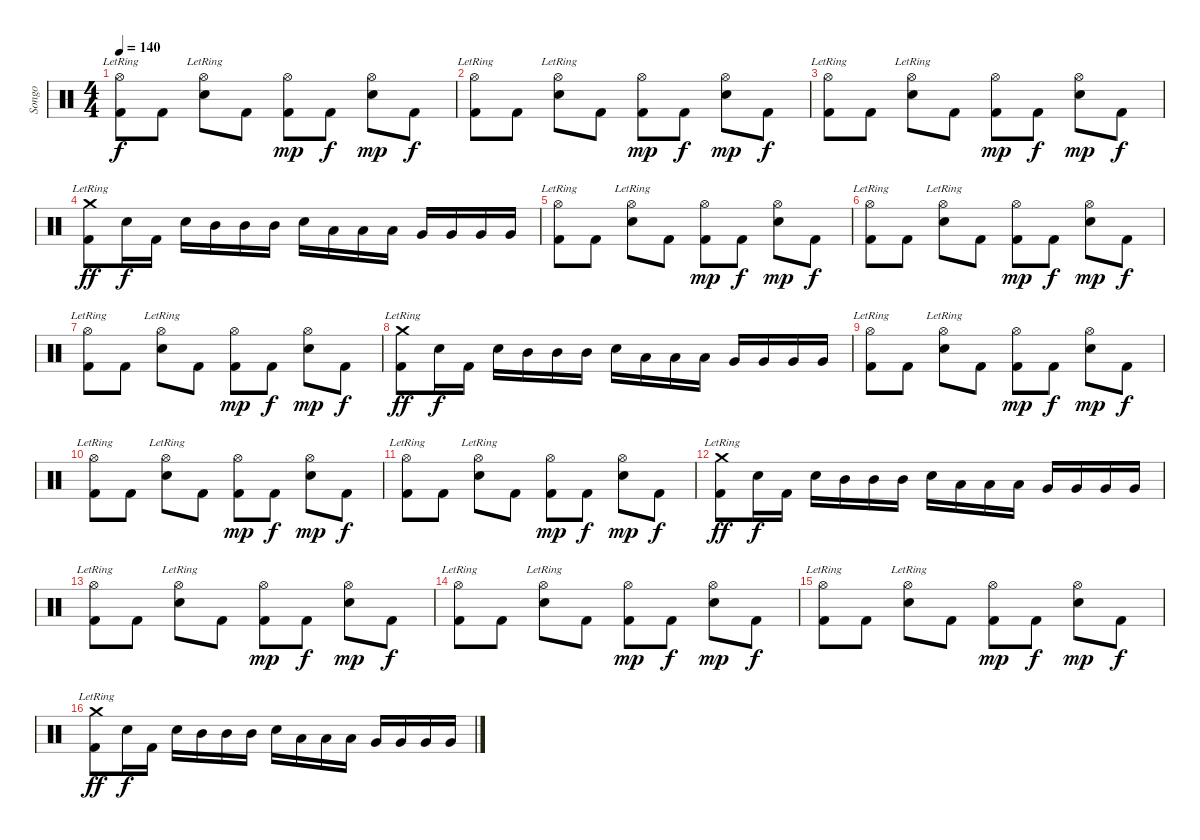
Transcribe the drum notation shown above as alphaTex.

\track ("Songo" "Songo") {instrument percussion}
\staff {score}
\articulation defaults
\ts (4 4)
\tempo 140
\clef neutral
\ks c
("Hi-Hat (open)"{lr} "Kick (hit) 2").8{dy f} "Kick (hit) 2".8 ("Hi-Hat (open)"{lr} "Electric Snare (hit)").8 "Kick (hit) 2".8 ("Hi-Hat (open)" "Kick (hit) 2").8{dy mp} "Kick (hit) 2".8{dy f} ("Hi-Hat (open)" "Electric Snare (hit)").8{dy mp} "Kick (hit) 2".8{dy f} |
("Hi-Hat (open)"{lr} "Kick (hit) 2").8 "Kick (hit) 2".8 ("Hi-Hat (open)"{lr} "Electric Snare (hit)").8 "Kick (hit) 2".8 ("Hi-Hat (open)" "Kick (hit) 2").8{dy mp} "Kick (hit) 2".8{dy f} ("Hi-Hat (open)" "Electric Snare (hit)").8{dy mp} "Kick (hit) 2".8{dy f} |
("Hi-Hat (open)"{lr} "Kick (hit) 2").8 "Kick (hit) 2".8 ("Hi-Hat (open)"{lr} "Electric Snare (hit)").8 "Kick (hit) 2".8 ("Hi-Hat (open)" "Kick (hit) 2").8{dy mp} "Kick (hit) 2".8{dy f} ("Hi-Hat (open)" "Electric Snare (hit)").8{dy mp} "Kick (hit) 2".8{dy f} |
("Crash medium (hit)"{lr} "Kick (hit) 2").8{dy ff} "Electric Snare (hit)".16{dy f} "Kick (hit) 2".16 "Electric Snare (hit)".16 "Mid Tom (hit)".16 "Mid Tom (hit)".16 "Mid Tom (hit)".16 "Electric Snare (hit)".16 "Low Tom (hit)".16 "Low Tom (hit)".16 "Low Tom (hit)".16 "Very Low Tom (hit)".16 "Very Low Tom (hit)".16 "Very Low Tom (hit)".16 "Very Low Tom (hit)".16 |
("Hi-Hat (open)"{lr} "Kick (hit) 2").8 "Kick (hit) 2".8 ("Hi-Hat (open)"{lr} "Electric Snare (hit)").8 "Kick (hit) 2".8 ("Hi-Hat (open)" "Kick (hit) 2").8{dy mp} "Kick (hit) 2".8{dy f} ("Hi-Hat (open)" "Electric Snare (hit)").8{dy mp} "Kick (hit) 2".8{dy f} |
("Hi-Hat (open)"{lr} "Kick (hit) 2").8 "Kick (hit) 2".8 ("Hi-Hat (open)"{lr} "Electric Snare (hit)").8 "Kick (hit) 2".8 ("Hi-Hat (open)" "Kick (hit) 2").8{dy mp} "Kick (hit) 2".8{dy f} ("Hi-Hat (open)" "Electric Snare (hit)").8{dy mp} "Kick (hit) 2".8{dy f} |
("Hi-Hat (open)"{lr} "Kick (hit) 2").8 "Kick (hit) 2".8 ("Hi-Hat (open)"{lr} "Electric Snare (hit)").8 "Kick (hit) 2".8 ("Hi-Hat (open)" "Kick (hit) 2").8{dy mp} "Kick (hit) 2".8{dy f} ("Hi-Hat (open)" "Electric Snare (hit)").8{dy mp} "Kick (hit) 2".8{dy f} |
("Crash medium (hit)"{lr} "Kick (hit) 2").8{dy ff} "Electric Snare (hit)".16{dy f} "Kick (hit) 2".16 "Electric Snare (hit)".16 "Mid Tom (hit)".16 "Mid Tom (hit)".16 "Mid Tom (hit)".16 "Electric Snare (hit)".16 "Low Tom (hit)".16 "Low Tom (hit)".16 "Low Tom (hit)".16 "Very Low Tom (hit)".16 "Very Low Tom (hit)".16 "Very Low Tom (hit)".16 "Very Low Tom (hit)".16 |
("Hi-Hat (open)"{lr} "Kick (hit) 2").8 "Kick (hit) 2".8 ("Hi-Hat (open)"{lr} "Electric Snare (hit)").8 "Kick (hit) 2".8 ("Hi-Hat (open)" "Kick (hit) 2").8{dy mp} "Kick (hit) 2".8{dy f} ("Hi-Hat (open)" "Electric Snare (hit)").8{dy mp} "Kick (hit) 2".8{dy f} |
("Hi-Hat (open)"{lr} "Kick (hit) 2").8 "Kick (hit) 2".8 ("Hi-Hat (open)"{lr} "Electric Snare (hit)").8 "Kick (hit) 2".8 ("Hi-Hat (open)" "Kick (hit) 2").8{dy mp} "Kick (hit) 2".8{dy f} ("Hi-Hat (open)" "Electric Snare (hit)").8{dy mp} "Kick (hit) 2".8{dy f} |
("Hi-Hat (open)"{lr} "Kick (hit) 2").8 "Kick (hit) 2".8 ("Hi-Hat (open)"{lr} "Electric Snare (hit)").8 "Kick (hit) 2".8 ("Hi-Hat (open)" "Kick (hit) 2").8{dy mp} "Kick (hit) 2".8{dy f} ("Hi-Hat (open)" "Electric Snare (hit)").8{dy mp} "Kick (hit) 2".8{dy f} |
("Crash medium (hit)"{lr} "Kick (hit) 2").8{dy ff} "Electric Snare (hit)".16{dy f} "Kick (hit) 2".16 "Electric Snare (hit)".16 "Mid Tom (hit)".16 "Mid Tom (hit)".16 "Mid Tom (hit)".16 "Electric Snare (hit)".16 "Low Tom (hit)".16 "Low Tom (hit)".16 "Low Tom (hit)".16 "Very Low Tom (hit)".16 "Very Low Tom (hit)".16 "Very Low Tom (hit)".16 "Very Low Tom (hit)".16 |
("Hi-Hat (open)"{lr} "Kick (hit) 2").8 "Kick (hit) 2".8 ("Hi-Hat (open)"{lr} "Electric Snare (hit)").8 "Kick (hit) 2".8 ("Hi-Hat (open)" "Kick (hit) 2").8{dy mp} "Kick (hit) 2".8{dy f} ("Hi-Hat (open)" "Electric Snare (hit)").8{dy mp} "Kick (hit) 2".8{dy f} |
("Hi-Hat (open)"{lr} "Kick (hit) 2").8 "Kick (hit) 2".8 ("Hi-Hat (open)"{lr} "Electric Snare (hit)").8 "Kick (hit) 2".8 ("Hi-Hat (open)" "Kick (hit) 2").8{dy mp} "Kick (hit) 2".8{dy f} ("Hi-Hat (open)" "Electric Snare (hit)").8{dy mp} "Kick (hit) 2".8{dy f} |
("Hi-Hat (open)"{lr} "Kick (hit) 2").8 "Kick (hit) 2".8 ("Hi-Hat (open)"{lr} "Electric Snare (hit)").8 "Kick (hit) 2".8 ("Hi-Hat (open)" "Kick (hit) 2").8{dy mp} "Kick (hit) 2".8{dy f} ("Hi-Hat (open)" "Electric Snare (hit)").8{dy mp} "Kick (hit) 2".8{dy f} |
("Crash medium (hit)"{lr} "Kick (hit) 2").8{dy ff} "Electric Snare (hit)".16{dy f} "Kick (hit) 2".16 "Electric Snare (hit)".16 "Mid Tom (hit)".16 "Mid Tom (hit)".16 "Mid Tom (hit)".16 "Electric Snare (hit)".16 "Low Tom (hit)".16 "Low Tom (hit)".16 "Low Tom (hit)".16 "Very Low Tom (hit)".16 "Very Low Tom (hit)".16 "Very Low Tom (hit)".16 "Very Low Tom (hit)".16
